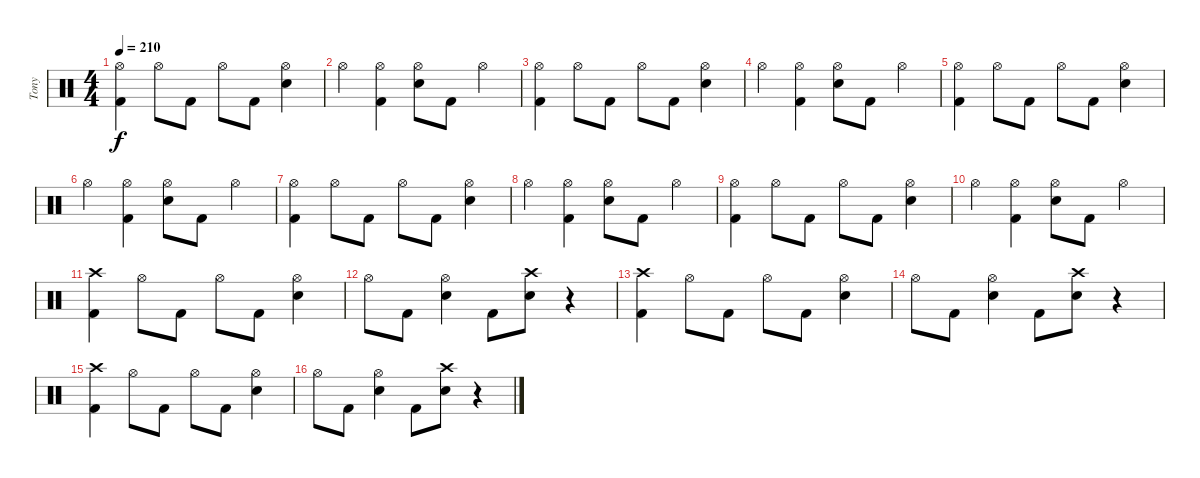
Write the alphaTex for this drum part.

\track ("Tony" "Tony") {instrument percussion}
\staff {score}
\articulation defaults
\ts (4 4)
\tempo 210
\clef neutral
\ks c
("Kick (hit) 2" "Hi-Hat (open)").4{dy f} "Hi-Hat (open)".8 "Kick (hit) 2".8 "Hi-Hat (open)".8 "Kick (hit) 2".8 ("Snare (hit) 2" "Hi-Hat (open)").4 |
"Hi-Hat (open)".4 ("Kick (hit) 2" "Hi-Hat (open)").4 ("Snare (hit) 2" "Hi-Hat (open)").8 "Kick (hit) 2".8 "Hi-Hat (open)".4 |
("Kick (hit) 2" "Hi-Hat (open)").4 "Hi-Hat (open)".8 "Kick (hit) 2".8 "Hi-Hat (open)".8 "Kick (hit) 2".8 ("Snare (hit) 2" "Hi-Hat (open)").4 |
"Hi-Hat (open)".4 ("Kick (hit) 2" "Hi-Hat (open)").4 ("Snare (hit) 2" "Hi-Hat (open)").8 "Kick (hit) 2".8 "Hi-Hat (open)".4 |
("Kick (hit) 2" "Hi-Hat (open)").4 "Hi-Hat (open)".8 "Kick (hit) 2".8 "Hi-Hat (open)".8 "Kick (hit) 2".8 ("Snare (hit) 2" "Hi-Hat (open)").4 |
"Hi-Hat (open)".4 ("Kick (hit) 2" "Hi-Hat (open)").4 ("Snare (hit) 2" "Hi-Hat (open)").8 "Kick (hit) 2".8 "Hi-Hat (open)".4 |
("Kick (hit) 2" "Hi-Hat (open)").4 "Hi-Hat (open)".8 "Kick (hit) 2".8 "Hi-Hat (open)".8 "Kick (hit) 2".8 ("Snare (hit) 2" "Hi-Hat (open)").4 |
"Hi-Hat (open)".4 ("Kick (hit) 2" "Hi-Hat (open)").4 ("Snare (hit) 2" "Hi-Hat (open)").8 "Kick (hit) 2".8 "Hi-Hat (open)".4 |
("Kick (hit) 2" "Hi-Hat (open)").4 "Hi-Hat (open)".8 "Kick (hit) 2".8 "Hi-Hat (open)".8 "Kick (hit) 2".8 ("Snare (hit) 2" "Hi-Hat (open)").4 |
"Hi-Hat (open)".4 ("Kick (hit) 2" "Hi-Hat (open)").4 ("Snare (hit) 2" "Hi-Hat (open)").8 "Kick (hit) 2".8 "Hi-Hat (open)".4 |
("Kick (hit) 2" "Crash high (hit)").4 "Hi-Hat (open)".8 "Kick (hit) 2".8 "Hi-Hat (open)".8 "Kick (hit) 2".8 ("Snare (hit) 2" "Hi-Hat (open)").4 |
"Hi-Hat (open)".8 "Kick (hit) 2".8 ("Snare (hit) 2" "Hi-Hat (open)").4 "Kick (hit) 2".8 ("Crash high (hit)" "Snare (hit) 2").8 r.4 |
("Kick (hit) 2" "Crash high (hit)").4 "Hi-Hat (open)".8 "Kick (hit) 2".8 "Hi-Hat (open)".8 "Kick (hit) 2".8 ("Snare (hit) 2" "Hi-Hat (open)").4 |
"Hi-Hat (open)".8 "Kick (hit) 2".8 ("Snare (hit) 2" "Hi-Hat (open)").4 "Kick (hit) 2".8 ("Crash high (hit)" "Snare (hit) 2").8 r.4 |
("Kick (hit) 2" "Crash high (hit)").4 "Hi-Hat (open)".8 "Kick (hit) 2".8 "Hi-Hat (open)".8 "Kick (hit) 2".8 ("Snare (hit) 2" "Hi-Hat (open)").4 |
"Hi-Hat (open)".8 "Kick (hit) 2".8 ("Snare (hit) 2" "Hi-Hat (open)").4 "Kick (hit) 2".8 ("Crash high (hit)" "Snare (hit) 2").8 r.4
